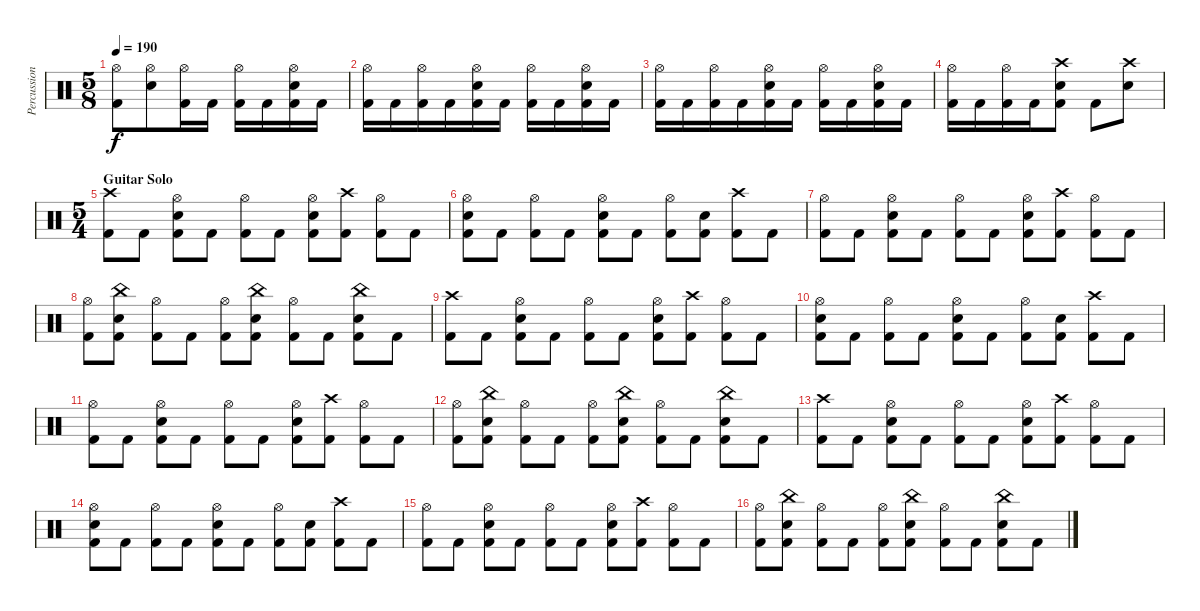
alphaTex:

\track ("Percussion" "Percussion") {instrument percussion}
\staff {score}
\articulation defaults
\ts (5 8)
\tempo 190
\clef neutral
\ks c
("Hi-Hat (open)" "Kick (hit) 2").8{dy f} ("Hi-Hat (open)" "Electric Snare (hit)").8 ("Hi-Hat (open)" "Kick (hit) 2").16 "Kick (hit) 2".16 ("Hi-Hat (open)" "Kick (hit) 2").16 "Kick (hit) 2".16 ("Hi-Hat (open)" "Electric Snare (hit)" "Kick (hit) 2").16 "Kick (hit) 2".16 |
("Hi-Hat (open)" "Kick (hit) 2").16 "Kick (hit) 2".16 ("Hi-Hat (open)" "Kick (hit) 2").16 "Kick (hit) 2".16 ("Hi-Hat (open)" "Electric Snare (hit)" "Kick (hit) 2").16 "Kick (hit) 2".16 ("Hi-Hat (open)" "Kick (hit) 2").16 "Kick (hit) 2".16 ("Hi-Hat (open)" "Electric Snare (hit)" "Kick (hit) 2").16 "Kick (hit) 2".16 |
("Hi-Hat (open)" "Kick (hit) 2").16 "Kick (hit) 2".16 ("Hi-Hat (open)" "Kick (hit) 2").16 "Kick (hit) 2".16 ("Hi-Hat (open)" "Electric Snare (hit)" "Kick (hit) 2").16 "Kick (hit) 2".16 ("Hi-Hat (open)" "Kick (hit) 2").16 "Kick (hit) 2".16 ("Hi-Hat (open)" "Electric Snare (hit)" "Kick (hit) 2").16 "Kick (hit) 2".16 |
("Hi-Hat (open)" "Kick (hit) 2").16 "Kick (hit) 2".16 ("Hi-Hat (open)" "Kick (hit) 2").16 "Kick (hit) 2".16 ("Crash high (hit)" "Electric Snare (hit)" "Kick (hit) 2").8 "Kick (hit) 2".8 ("Crash high (hit)" "Electric Snare (hit)").8 |
\ts (5 4)
\section ("" "Guitar Solo")
("Crash high (hit)" "Kick (hit) 2").8 "Kick (hit) 2".8 ("Hi-Hat (open)" "Electric Snare (hit)" "Kick (hit) 2").8 "Kick (hit) 2".8 ("Hi-Hat (open)" "Kick (hit) 2").8 "Kick (hit) 2".8 ("Hi-Hat (open)" "Electric Snare (hit)" "Kick (hit) 2").8 ("Crash high (hit)" "Kick (hit) 2").8 ("Hi-Hat (open)" "Kick (hit) 2").8 "Kick (hit) 2".8 |
("Hi-Hat (open)" "Electric Snare (hit)" "Kick (hit) 2").8 "Kick (hit) 2".8 ("Hi-Hat (open)" "Kick (hit) 2").8 "Kick (hit) 2".8 ("Hi-Hat (open)" "Electric Snare (hit)" "Kick (hit) 2").8 "Kick (hit) 2".8 ("Hi-Hat (open)" "Kick (hit) 2").8 ("Electric Snare (hit)" "Kick (hit) 2").8 ("Crash high (hit)" "Kick (hit) 2").8 "Kick (hit) 2".8 |
("Hi-Hat (open)" "Kick (hit) 2").8 "Kick (hit) 2".8 ("Hi-Hat (open)" "Electric Snare (hit)" "Kick (hit) 2").8 "Kick (hit) 2".8 ("Hi-Hat (open)" "Kick (hit) 2").8 "Kick (hit) 2".8 ("Hi-Hat (open)" "Electric Snare (hit)" "Kick (hit) 2").8 ("Crash high (hit)" "Kick (hit) 2").8 ("Hi-Hat (open)" "Kick (hit) 2").8 "Kick (hit) 2".8 |
("Hi-Hat (open)" "Kick (hit) 2").8 ("China (hit)" "Electric Snare (hit)" "Kick (hit) 2").8 ("Hi-Hat (open)" "Kick (hit) 2").8 "Kick (hit) 2".8 ("Hi-Hat (open)" "Kick (hit) 2").8 ("China (hit)" "Electric Snare (hit)" "Kick (hit) 2").8 ("Hi-Hat (open)" "Kick (hit) 2").8 "Kick (hit) 2".8 ("China (hit)" "Electric Snare (hit)" "Kick (hit) 2").8 "Kick (hit) 2".8 |
("Crash high (hit)" "Kick (hit) 2").8 "Kick (hit) 2".8 ("Hi-Hat (open)" "Electric Snare (hit)" "Kick (hit) 2").8 "Kick (hit) 2".8 ("Hi-Hat (open)" "Kick (hit) 2").8 "Kick (hit) 2".8 ("Hi-Hat (open)" "Electric Snare (hit)" "Kick (hit) 2").8 ("Crash high (hit)" "Kick (hit) 2").8 ("Hi-Hat (open)" "Kick (hit) 2").8 "Kick (hit) 2".8 |
("Hi-Hat (open)" "Electric Snare (hit)" "Kick (hit) 2").8 "Kick (hit) 2".8 ("Hi-Hat (open)" "Kick (hit) 2").8 "Kick (hit) 2".8 ("Hi-Hat (open)" "Electric Snare (hit)" "Kick (hit) 2").8 "Kick (hit) 2".8 ("Hi-Hat (open)" "Kick (hit) 2").8 ("Electric Snare (hit)" "Kick (hit) 2").8 ("Crash high (hit)" "Kick (hit) 2").8 "Kick (hit) 2".8 |
("Hi-Hat (open)" "Kick (hit) 2").8 "Kick (hit) 2".8 ("Hi-Hat (open)" "Electric Snare (hit)" "Kick (hit) 2").8 "Kick (hit) 2".8 ("Hi-Hat (open)" "Kick (hit) 2").8 "Kick (hit) 2".8 ("Hi-Hat (open)" "Electric Snare (hit)" "Kick (hit) 2").8 ("Crash high (hit)" "Kick (hit) 2").8 ("Hi-Hat (open)" "Kick (hit) 2").8 "Kick (hit) 2".8 |
("Hi-Hat (open)" "Kick (hit) 2").8 ("China (hit)" "Electric Snare (hit)" "Kick (hit) 2").8 ("Hi-Hat (open)" "Kick (hit) 2").8 "Kick (hit) 2".8 ("Hi-Hat (open)" "Kick (hit) 2").8 ("China (hit)" "Electric Snare (hit)" "Kick (hit) 2").8 ("Hi-Hat (open)" "Kick (hit) 2").8 "Kick (hit) 2".8 ("China (hit)" "Electric Snare (hit)" "Kick (hit) 2").8 "Kick (hit) 2".8 |
("Crash high (hit)" "Kick (hit) 2").8 "Kick (hit) 2".8 ("Hi-Hat (open)" "Electric Snare (hit)" "Kick (hit) 2").8 "Kick (hit) 2".8 ("Hi-Hat (open)" "Kick (hit) 2").8 "Kick (hit) 2".8 ("Hi-Hat (open)" "Electric Snare (hit)" "Kick (hit) 2").8 ("Crash high (hit)" "Kick (hit) 2").8 ("Hi-Hat (open)" "Kick (hit) 2").8 "Kick (hit) 2".8 |
("Hi-Hat (open)" "Electric Snare (hit)" "Kick (hit) 2").8 "Kick (hit) 2".8 ("Hi-Hat (open)" "Kick (hit) 2").8 "Kick (hit) 2".8 ("Hi-Hat (open)" "Electric Snare (hit)" "Kick (hit) 2").8 "Kick (hit) 2".8 ("Hi-Hat (open)" "Kick (hit) 2").8 ("Electric Snare (hit)" "Kick (hit) 2").8 ("Crash high (hit)" "Kick (hit) 2").8 "Kick (hit) 2".8 |
("Hi-Hat (open)" "Kick (hit) 2").8 "Kick (hit) 2".8 ("Hi-Hat (open)" "Electric Snare (hit)" "Kick (hit) 2").8 "Kick (hit) 2".8 ("Hi-Hat (open)" "Kick (hit) 2").8 "Kick (hit) 2".8 ("Hi-Hat (open)" "Electric Snare (hit)" "Kick (hit) 2").8 ("Crash high (hit)" "Kick (hit) 2").8 ("Hi-Hat (open)" "Kick (hit) 2").8 "Kick (hit) 2".8 |
("Hi-Hat (open)" "Kick (hit) 2").8 ("China (hit)" "Electric Snare (hit)" "Kick (hit) 2").8 ("Hi-Hat (open)" "Kick (hit) 2").8 "Kick (hit) 2".8 ("Hi-Hat (open)" "Kick (hit) 2").8 ("China (hit)" "Electric Snare (hit)" "Kick (hit) 2").8 ("Hi-Hat (open)" "Kick (hit) 2").8 "Kick (hit) 2".8 ("China (hit)" "Electric Snare (hit)" "Kick (hit) 2").8 "Kick (hit) 2".8
